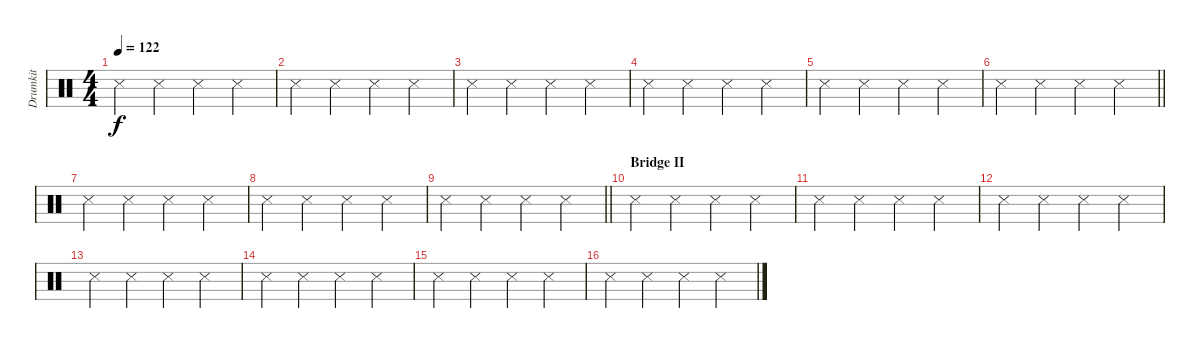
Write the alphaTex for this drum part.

\track ("Drumkit" "Drumkit") {mute instrument percussion}
\staff {score}
\articulation defaults
\ts (4 4)
\tempo 122
\clef neutral
\ks c "Snare (side stick) 3".4{dy f} "Snare (side stick) 3".4 "Snare (side stick) 3".4 "Snare (side stick) 3".4
|
"Snare (side stick) 3".4 "Snare (side stick) 3".4 "Snare (side stick) 3".4 "Snare (side stick) 3".4 |
"Snare (side stick) 3".4 "Snare (side stick) 3".4 "Snare (side stick) 3".4 "Snare (side stick) 3".4 |
"Snare (side stick) 3".4 "Snare (side stick) 3".4 "Snare (side stick) 3".4 "Snare (side stick) 3".4 |
"Snare (side stick) 3".4 "Snare (side stick) 3".4 "Snare (side stick) 3".4 "Snare (side stick) 3".4 |
\barLineRight lightlight "Snare (side stick) 3".4 "Snare (side stick) 3".4 "Snare (side stick) 3".4 "Snare (side stick) 3".4
|
"Snare (side stick) 3".4 "Snare (side stick) 3".4 "Snare (side stick) 3".4 "Snare (side stick) 3".4 |
"Snare (side stick) 3".4 "Snare (side stick) 3".4 "Snare (side stick) 3".4 "Snare (side stick) 3".4 |
\barLineRight lightlight "Snare (side stick) 3".4 "Snare (side stick) 3".4 "Snare (side stick) 3".4 "Snare (side stick) 3".4
|
\section ("" "Bridge II")
"Snare (side stick) 3".4 "Snare (side stick) 3".4 "Snare (side stick) 3".4 "Snare (side stick) 3".4 |
"Snare (side stick) 3".4 "Snare (side stick) 3".4 "Snare (side stick) 3".4 "Snare (side stick) 3".4 |
"Snare (side stick) 3".4 "Snare (side stick) 3".4 "Snare (side stick) 3".4 "Snare (side stick) 3".4 |
"Snare (side stick) 3".4 "Snare (side stick) 3".4 "Snare (side stick) 3".4 "Snare (side stick) 3".4 |
"Snare (side stick) 3".4 "Snare (side stick) 3".4 "Snare (side stick) 3".4 "Snare (side stick) 3".4 |
"Snare (side stick) 3".4 "Snare (side stick) 3".4 "Snare (side stick) 3".4 "Snare (side stick) 3".4 |
"Snare (side stick) 3".4 "Snare (side stick) 3".4 "Snare (side stick) 3".4 "Snare (side stick) 3".4
